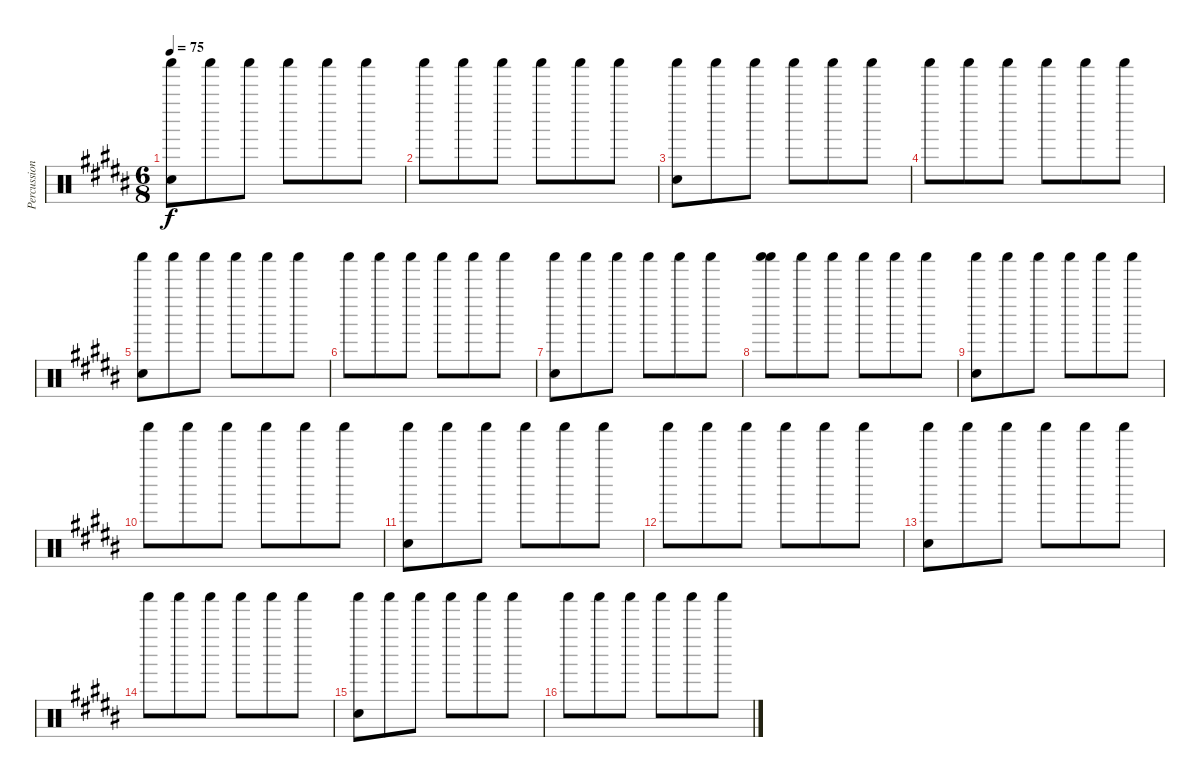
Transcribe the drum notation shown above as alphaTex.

\track ("Percussion" "Percussion") {instrument percussion}
\staff {score}
\articulation defaults
\ts (6 8)
\tempo 75
\clef neutral
\ks b
("Shaker (hit)" "Hand Clap (hit)").8{dy f} "Shaker (hit)".8 "Shaker (hit)".8 "Shaker (hit)".8 "Shaker (hit)".8 "Shaker (hit)".8 |
"Shaker (hit)".8 "Shaker (hit)".8 "Shaker (hit)".8 "Shaker (hit)".8 "Shaker (hit)".8 "Shaker (hit)".8 |
("Shaker (hit)" "Hand Clap (hit)").8 "Shaker (hit)".8 "Shaker (hit)".8 "Shaker (hit)".8 "Shaker (hit)".8 "Shaker (hit)".8 |
"Shaker (hit)".8 "Shaker (hit)".8 "Shaker (hit)".8 "Shaker (hit)".8 "Shaker (hit)".8 "Shaker (hit)".8 |
("Shaker (hit)" "Hand Clap (hit)").8 "Shaker (hit)".8 "Shaker (hit)".8 "Shaker (hit)".8 "Shaker (hit)".8 "Shaker (hit)".8 |
"Shaker (hit)".8 "Shaker (hit)".8 "Shaker (hit)".8 "Shaker (hit)".8 "Shaker (hit)".8 "Shaker (hit)".8 |
("Shaker (hit)" "Hand Clap (hit)").8 "Shaker (hit)".8 "Shaker (hit)".8 "Shaker (hit)".8 "Shaker (hit)".8 "Shaker (hit)".8 |
("Shaker (hit)" "Shaker (hit)").8 "Shaker (hit)".8 "Shaker (hit)".8 "Shaker (hit)".8 "Shaker (hit)".8 "Shaker (hit)".8 |
("Shaker (hit)" "Hand Clap (hit)").8 "Shaker (hit)".8 "Shaker (hit)".8 "Shaker (hit)".8 "Shaker (hit)".8 "Shaker (hit)".8 |
"Shaker (hit)".8 "Shaker (hit)".8 "Shaker (hit)".8 "Shaker (hit)".8 "Shaker (hit)".8 "Shaker (hit)".8 |
("Shaker (hit)" "Hand Clap (hit)").8 "Shaker (hit)".8 "Shaker (hit)".8 "Shaker (hit)".8 "Shaker (hit)".8 "Shaker (hit)".8 |
"Shaker (hit)".8 "Shaker (hit)".8 "Shaker (hit)".8 "Shaker (hit)".8 "Shaker (hit)".8 "Shaker (hit)".8 |
("Shaker (hit)" "Hand Clap (hit)").8 "Shaker (hit)".8 "Shaker (hit)".8 "Shaker (hit)".8 "Shaker (hit)".8 "Shaker (hit)".8 |
"Shaker (hit)".8 "Shaker (hit)".8 "Shaker (hit)".8 "Shaker (hit)".8 "Shaker (hit)".8 "Shaker (hit)".8 |
("Shaker (hit)" "Hand Clap (hit)").8 "Shaker (hit)".8 "Shaker (hit)".8 "Shaker (hit)".8 "Shaker (hit)".8 "Shaker (hit)".8 |
"Shaker (hit)".8 "Shaker (hit)".8 "Shaker (hit)".8 "Shaker (hit)".8 "Shaker (hit)".8 "Shaker (hit)".8
